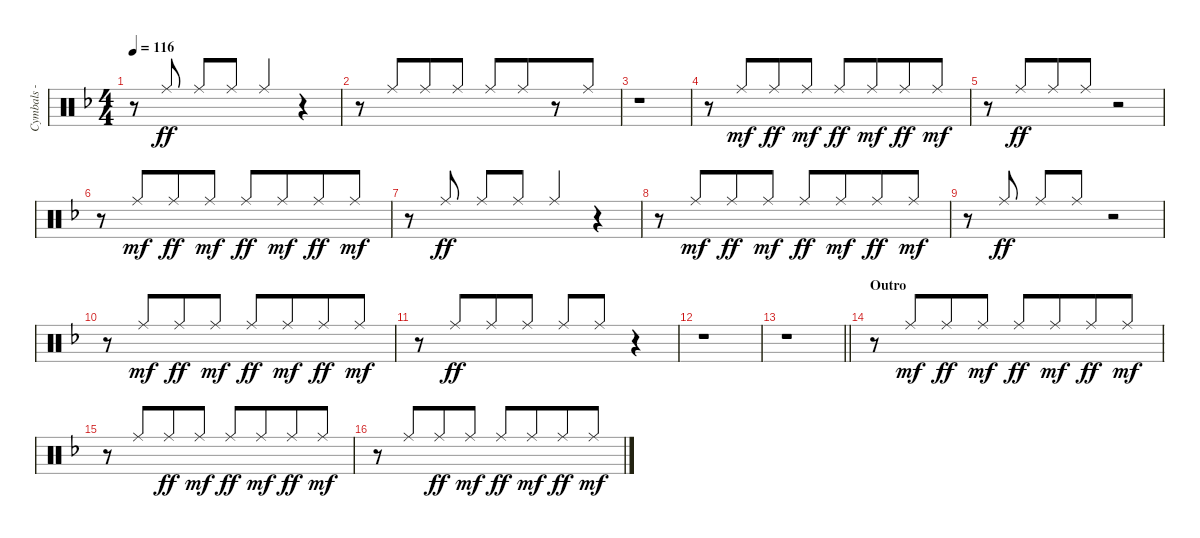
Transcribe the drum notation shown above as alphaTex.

\track ("Cymbals - ride" "Cymbals - ") {instrument percussion}
\staff {score}
\articulation defaults
\ts (4 4)
\tempo 116
\clef neutral
\ks f
r.8{dy ff} "Ride (middle)".8{beam Up beam split} "Ride (middle)".8{beam Up} "Ride (middle)".8{beam Up} "Ride (middle)".4{beam Up} r.4 |
r.8 "Ride (middle)".8{beam Up beam merge} "Ride (middle)".8{beam Up} "Ride (middle)".8{beam Up} "Ride (middle)".8{beam Up} "Ride (middle)".8{beam Up beam merge} r.8 "Ride (middle)".8{beam Up} |
r.1 |
r.8 "Ride (middle)".8{dy mf beam Up beam merge} "Ride (middle)".8{dy ff beam Up} "Ride (middle)".8{dy mf beam Up} "Ride (middle)".8{dy ff beam Up} "Ride (middle)".8{dy mf beam Up beam merge} "Ride (middle)".8{dy ff beam Up} "Ride (middle)".8{dy mf beam Up} |
r.8 "Ride (middle)".8{dy ff beam Up beam merge} "Ride (middle)".8{beam Up} "Ride (middle)".8{beam Up} r.2 |
r.8 "Ride (middle)".8{dy mf beam Up beam merge} "Ride (middle)".8{dy ff beam Up} "Ride (middle)".8{dy mf beam Up} "Ride (middle)".8{dy ff beam Up} "Ride (middle)".8{dy mf beam Up beam merge} "Ride (middle)".8{dy ff beam Up} "Ride (middle)".8{dy mf beam Up} |
r.8 "Ride (middle)".8{dy ff beam Up beam split} "Ride (middle)".8{beam Up} "Ride (middle)".8{beam Up} "Ride (middle)".4{beam Up} r.4 |
r.8 "Ride (middle)".8{dy mf beam Up beam merge} "Ride (middle)".8{dy ff beam Up} "Ride (middle)".8{dy mf beam Up} "Ride (middle)".8{dy ff beam Up} "Ride (middle)".8{dy mf beam Up beam merge} "Ride (middle)".8{dy ff beam Up} "Ride (middle)".8{dy mf beam Up} |
r.8 "Ride (middle)".8{dy ff beam Up beam split} "Ride (middle)".8{beam Up} "Ride (middle)".8{beam Up} r.2 |
r.8 "Ride (middle)".8{dy mf beam Up beam merge} "Ride (middle)".8{dy ff beam Up} "Ride (middle)".8{dy mf beam Up} "Ride (middle)".8{dy ff beam Up} "Ride (middle)".8{dy mf beam Up beam merge} "Ride (middle)".8{dy ff beam Up} "Ride (middle)".8{dy mf beam Up} |
r.8 "Ride (middle)".8{dy ff beam Up beam merge} "Ride (middle)".8{beam Up} "Ride (middle)".8{beam Up} "Ride (middle)".8{beam Up} "Ride (middle)".8{beam Up beam merge} r.4 |
r.1 |
\barLineRight lightlight
r.1 |
\section ("" "Outro")
r.8 "Ride (middle)".8{dy mf beam Up beam merge} "Ride (middle)".8{dy ff beam Up} "Ride (middle)".8{dy mf beam Up} "Ride (middle)".8{dy ff beam Up} "Ride (middle)".8{dy mf beam Up beam merge} "Ride (middle)".8{dy ff beam Up} "Ride (middle)".8{dy mf beam Up} |
r.8 "Ride (middle)".8{beam Up beam merge} "Ride (middle)".8{dy ff beam Up} "Ride (middle)".8{dy mf beam Up} "Ride (middle)".8{dy ff beam Up} "Ride (middle)".8{dy mf beam Up beam merge} "Ride (middle)".8{dy ff beam Up} "Ride (middle)".8{dy mf beam Up} |
r.8 "Ride (middle)".8{beam Up beam merge} "Ride (middle)".8{dy ff beam Up} "Ride (middle)".8{dy mf beam Up} "Ride (middle)".8{dy ff beam Up} "Ride (middle)".8{dy mf beam Up beam merge} "Ride (middle)".8{dy ff beam Up} "Ride (middle)".8{dy mf beam Up}
